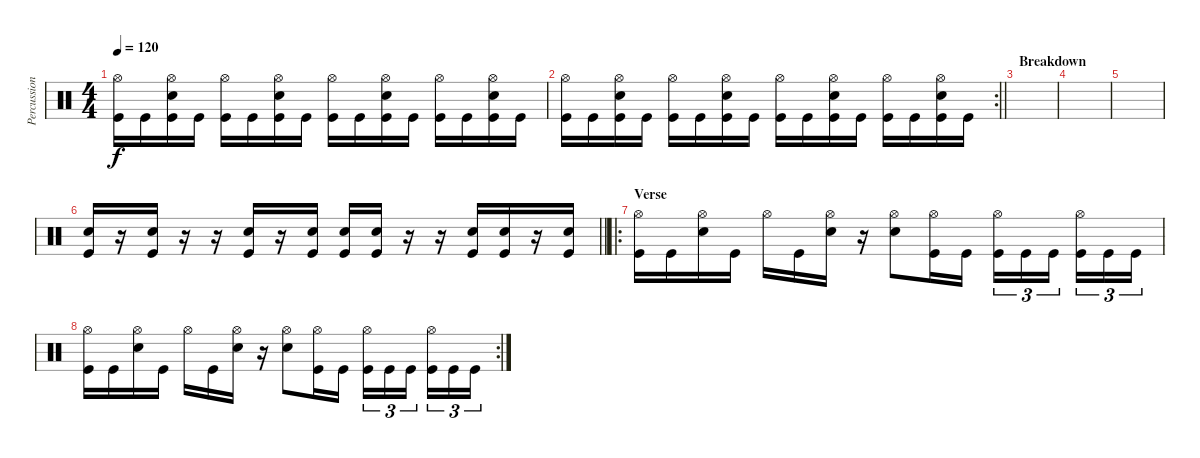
\track ("Percussion" "Percussion") {instrument percussion}
\staff {score}
\articulation defaults
\ts (4 4)
\tempo 120
\clef neutral
\ks c
("Hi-Hat (open)" "Kick (hit)").16{dy f} "Kick (hit)".16 ("Hi-Hat (open)" "Snare (hit) 2" "Kick (hit)").16 "Kick (hit)".16 ("Hi-Hat (open)" "Kick (hit)").16 "Kick (hit)".16 ("Hi-Hat (open)" "Snare (hit) 2" "Kick (hit)").16 "Kick (hit)".16 ("Hi-Hat (open)" "Kick (hit)").16 "Kick (hit)".16 ("Hi-Hat (open)" "Snare (hit) 2" "Kick (hit)").16 "Kick (hit)".16 ("Hi-Hat (open)" "Kick (hit)").16 "Kick (hit)".16 ("Hi-Hat (open)" "Snare (hit) 2" "Kick (hit)").16 "Kick (hit)".16 |
\rc 2
\barLineRight lightlight
("Hi-Hat (open)" "Kick (hit)").16 "Kick (hit)".16 ("Hi-Hat (open)" "Snare (hit) 2" "Kick (hit)").16 "Kick (hit)".16 ("Hi-Hat (open)" "Kick (hit)").16 "Kick (hit)".16 ("Hi-Hat (open)" "Snare (hit) 2" "Kick (hit)").16 "Kick (hit)".16 ("Hi-Hat (open)" "Kick (hit)").16 "Kick (hit)".16 ("Hi-Hat (open)" "Snare (hit) 2" "Kick (hit)").16 "Kick (hit)".16 ("Hi-Hat (open)" "Kick (hit)").16 "Kick (hit)".16 ("Hi-Hat (open)" "Snare (hit) 2" "Kick (hit)").16 "Kick (hit)".16 |
\section ("" "Breakdown")
|
|
|
\barLineRight lightlight
("Snare (hit) 2" "Kick (hit)").16 r.16 ("Snare (hit) 2" "Kick (hit)").16 r.16 r.16 ("Snare (hit) 2" "Kick (hit)").16 r.16 ("Snare (hit) 2" "Kick (hit)").16 ("Snare (hit) 2" "Kick (hit)").16 ("Snare (hit) 2" "Kick (hit)").16 r.16 r.16 ("Snare (hit) 2" "Kick (hit)").16 ("Snare (hit) 2" "Kick (hit)").16 r.16 ("Snare (hit) 2" "Kick (hit)").16 |
\ro
\section ("" "Verse")
("Hi-Hat (open)" "Kick (hit)").16 "Kick (hit)".16 ("Hi-Hat (open)" "Snare (hit) 2").16 "Kick (hit)".16 "Hi-Hat (open)".16 "Kick (hit)".16 ("Hi-Hat (open)" "Snare (hit) 2").16 r.16 ("Hi-Hat (open)" "Snare (hit) 2").8 ("Hi-Hat (open)" "Kick (hit)").16 "Kick (hit)".16 ("Hi-Hat (open)" "Kick (hit)").16{tu (3 2)} "Kick (hit)".16{tu (3 2)} "Kick (hit)".16{tu (3 2) beam splitsecondary} ("Hi-Hat (open)" "Kick (hit)").16{tu (3 2)} "Kick (hit)".16{tu (3 2)} "Kick (hit)".16{tu (3 2)} |
\rc 2
("Hi-Hat (open)" "Kick (hit)").16 "Kick (hit)".16 ("Hi-Hat (open)" "Snare (hit) 2").16 "Kick (hit)".16 "Hi-Hat (open)".16 "Kick (hit)".16 ("Hi-Hat (open)" "Snare (hit) 2").16 r.16 ("Hi-Hat (open)" "Snare (hit) 2").8 ("Hi-Hat (open)" "Kick (hit)").16 "Kick (hit)".16 ("Hi-Hat (open)" "Kick (hit)").16{tu (3 2)} "Kick (hit)".16{tu (3 2)} "Kick (hit)".16{tu (3 2) beam splitsecondary} ("Hi-Hat (open)" "Kick (hit)").16{tu (3 2)} "Kick (hit)".16{tu (3 2)} "Kick (hit)".16{tu (3 2)}
